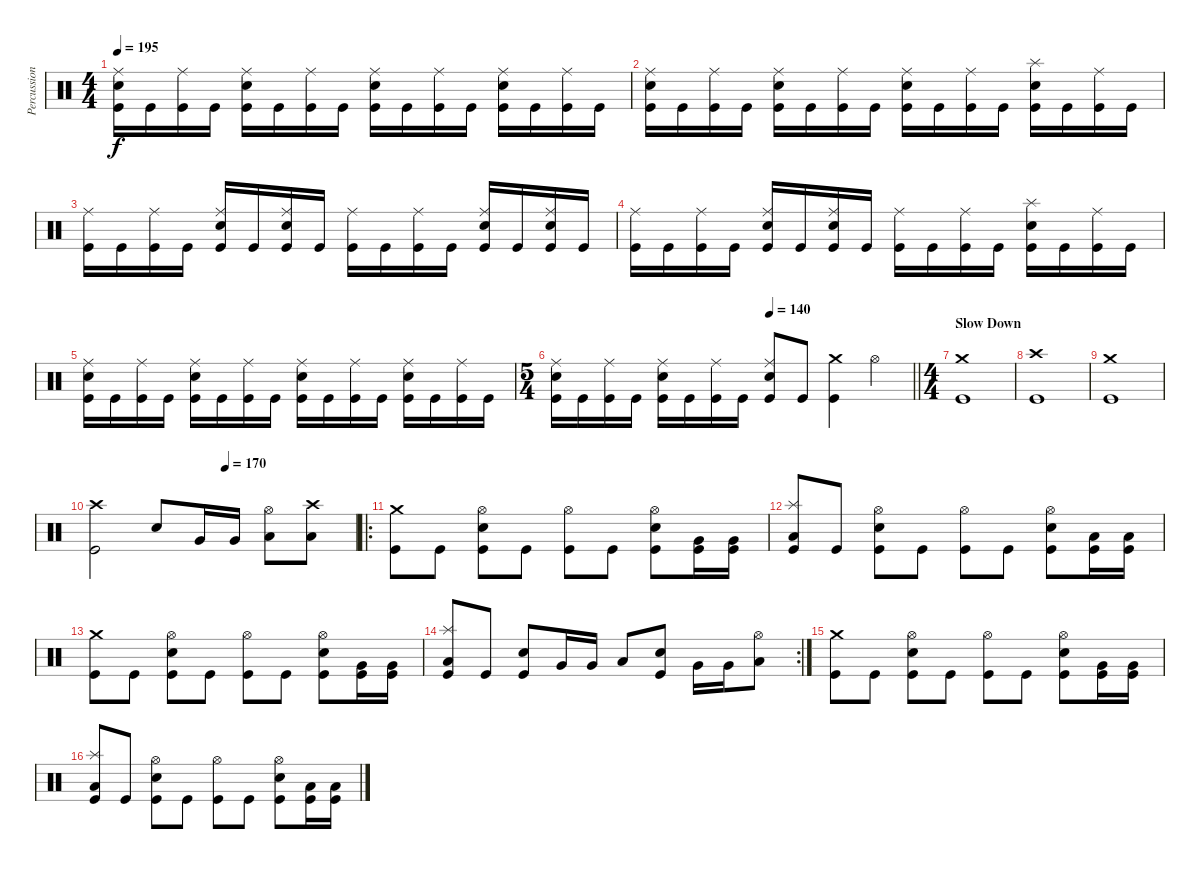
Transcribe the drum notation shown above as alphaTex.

\track ("Percussion" "Percussion") {instrument percussion}
\staff {score}
\articulation defaults
\ts (4 4)
\tempo 195
\clef neutral
\ks c
("Kick (hit)" "Ride (middle)" "Snare (hit) 2").16{dy f} "Kick (hit)".16 ("Kick (hit)" "Ride (middle)").16 "Kick (hit)".16 ("Kick (hit)" "Ride (middle)" "Snare (hit) 2").16 "Kick (hit)".16 ("Kick (hit)" "Ride (middle)").16 "Kick (hit)".16 ("Kick (hit)" "Ride (middle)" "Snare (hit) 2").16 "Kick (hit)".16 ("Kick (hit)" "Ride (middle)").16 "Kick (hit)".16 ("Kick (hit)" "Ride (middle)" "Snare (hit) 2").16 "Kick (hit)".16 ("Kick (hit)" "Ride (middle)").16 "Kick (hit)".16 |
("Kick (hit)" "Ride (middle)" "Snare (hit) 2").16 "Kick (hit)".16 ("Kick (hit)" "Ride (middle)").16 "Kick (hit)".16 ("Kick (hit)" "Ride (middle)" "Snare (hit) 2").16 "Kick (hit)".16 ("Kick (hit)" "Ride (middle)").16 "Kick (hit)".16 ("Kick (hit)" "Ride (middle)" "Snare (hit) 2").16 "Kick (hit)".16 ("Kick (hit)" "Ride (middle)").16 "Kick (hit)".16 ("Kick (hit)" "Splash (hit)" "Snare (hit) 2").16 "Kick (hit)".16 ("Kick (hit)" "Ride (middle)").16 "Kick (hit)".16 |
("Kick (hit)" "Ride (middle)").16 "Kick (hit)".16 ("Kick (hit)" "Ride (middle)").16 "Kick (hit)".16 ("Kick (hit)" "Ride (middle)" "Snare (hit) 2").16 "Kick (hit)".16 ("Kick (hit)" "Ride (middle)" "Snare (hit) 2").16 "Kick (hit)".16 ("Kick (hit)" "Ride (middle)").16 "Kick (hit)".16 ("Kick (hit)" "Ride (middle)").16 "Kick (hit)".16 ("Kick (hit)" "Ride (middle)" "Snare (hit) 2").16 "Kick (hit)".16 ("Kick (hit)" "Ride (middle)" "Snare (hit) 2").16 "Kick (hit)".16 |
("Kick (hit)" "Ride (middle)").16 "Kick (hit)".16 ("Kick (hit)" "Ride (middle)").16 "Kick (hit)".16 ("Kick (hit)" "Ride (middle)" "Snare (hit) 2").16 "Kick (hit)".16 ("Kick (hit)" "Ride (middle)" "Snare (hit) 2").16 "Kick (hit)".16 ("Kick (hit)" "Ride (middle)").16 "Kick (hit)".16 ("Kick (hit)" "Ride (middle)").16 "Kick (hit)".16 ("Kick (hit)" "Splash (hit)" "Snare (hit) 2").16 "Kick (hit)".16 ("Kick (hit)" "Ride (middle)").16 "Kick (hit)".16 |
("Kick (hit)" "Ride (middle)" "Snare (hit) 2").16 "Kick (hit)".16 ("Kick (hit)" "Ride (middle)").16 "Kick (hit)".16 ("Kick (hit)" "Ride (middle)" "Snare (hit) 2").16 "Kick (hit)".16 ("Kick (hit)" "Ride (middle)").16 "Kick (hit)".16 ("Kick (hit)" "Ride (middle)" "Snare (hit) 2").16 "Kick (hit)".16 ("Kick (hit)" "Ride (middle)").16 "Kick (hit)".16 ("Kick (hit)" "Ride (middle)" "Snare (hit) 2").16 "Kick (hit)".16 ("Kick (hit)" "Ride (middle)").16 "Kick (hit)".16 |
\ts (5 4)
\tempo (140 0.6)
\barLineRight lightlight
("Kick (hit)" "Ride (middle)" "Snare (hit) 2").16 "Kick (hit)".16 ("Kick (hit)" "Ride (middle)").16 "Kick (hit)".16 ("Kick (hit)" "Ride (middle)" "Snare (hit) 2").16 "Kick (hit)".16 ("Kick (hit)" "Ride (middle)").16 "Kick (hit)".16 ("Kick (hit)" "Ride (middle)" "Snare (hit) 2").8 "Kick (hit)".8 ("Kick (hit)" "Crash medium (hit)").4 "Hi-Hat (open)".4 |
\ts (4 4)
\section ("" "Slow Down")
("Kick (hit)" "Crash medium (hit)").1 |
("Kick (hit)" "Crash high (hit)").1 |
("Kick (hit)" "Crash medium (hit)").1 |
\tempo (170 0.5)
("Kick (hit)" "Crash high (hit)").2 "Snare (hit) 2".8 "Very Low Tom (hit)".16 "Very Low Tom (hit)".16 ("Low Floor Tom (hit)" "Hi-Hat (open)").8 ("Low Floor Tom (hit)" "Crash high (hit)").8 |
\ro
("Kick (hit)" "Crash medium (hit)").8 "Kick (hit)".8 ("Kick (hit)" "Snare (hit) 2" "Hi-Hat (open)").8 "Kick (hit)".8 ("Kick (hit)" "Hi-Hat (open)").8 "Kick (hit)".8 ("Kick (hit)" "Snare (hit) 2" "Hi-Hat (open)").8 ("Kick (hit)" "Very Low Tom (hit)").16 ("Kick (hit)" "Very Low Tom (hit)").16 |
("Kick (hit)" "Low Floor Tom (hit)" "Splash (hit)").8 "Kick (hit)".8 ("Kick (hit)" "Snare (hit) 2" "Hi-Hat (open)").8 "Kick (hit)".8 ("Kick (hit)" "Hi-Hat (open)").8 "Kick (hit)".8 ("Kick (hit)" "Snare (hit) 2" "Hi-Hat (open)").8 ("Kick (hit)" "Low Tom (hit)").16 ("Kick (hit)" "Low Tom (hit)").16 |
("Kick (hit)" "Crash medium (hit)").8 "Kick (hit)".8 ("Kick (hit)" "Snare (hit) 2" "Hi-Hat (open)").8 "Kick (hit)".8 ("Kick (hit)" "Hi-Hat (open)").8 "Kick (hit)".8 ("Kick (hit)" "Snare (hit) 2" "Hi-Hat (open)").8 ("Kick (hit)" "Very Low Tom (hit)").16 ("Kick (hit)" "Very Low Tom (hit)").16 |
\rc 2
("Kick (hit)" "Low Floor Tom (hit)" "Splash (hit)").8 "Kick (hit)".8 ("Kick (hit)" "Snare (hit) 2").8 "Very Low Tom (hit)".16 "Very Low Tom (hit)".16 "Low Floor Tom (hit)".8 ("Kick (hit)" "Snare (hit) 2").8 "Very Low Tom (hit)".16 "Very Low Tom (hit)".16 ("Low Floor Tom (hit)" "Hi-Hat (open)").8 |
("Kick (hit)" "Crash medium (hit)").8 "Kick (hit)".8 ("Kick (hit)" "Snare (hit) 2" "Hi-Hat (open)").8 "Kick (hit)".8 ("Kick (hit)" "Hi-Hat (open)").8 "Kick (hit)".8 ("Kick (hit)" "Snare (hit) 2" "Hi-Hat (open)").8 ("Kick (hit)" "Very Low Tom (hit)").16 ("Kick (hit)" "Very Low Tom (hit)").16 |
("Kick (hit)" "Low Floor Tom (hit)" "Splash (hit)").8 "Kick (hit)".8 ("Kick (hit)" "Snare (hit) 2" "Hi-Hat (open)").8 "Kick (hit)".8 ("Kick (hit)" "Hi-Hat (open)").8 "Kick (hit)".8 ("Kick (hit)" "Snare (hit) 2" "Hi-Hat (open)").8 ("Kick (hit)" "Low Tom (hit)").16 ("Kick (hit)" "Low Tom (hit)").16
